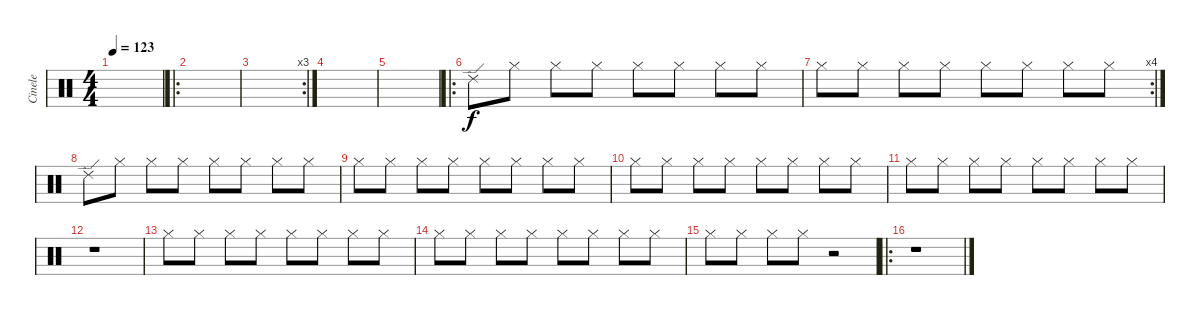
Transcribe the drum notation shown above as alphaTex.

\track ("Cinele" "Cinele") {instrument percussion}
\staff {score}
\articulation defaults
\ts (4 4)
\tempo 123
\clef neutral
\ks c
|
\ro
|
\rc 3
|
|
|
\ro "Ride (edge) 2".8 "Hi-Hat (closed)".8 "Hi-Hat (closed)".8 "Hi-Hat (closed)".8 "Hi-Hat (closed)".8 "Hi-Hat (closed)".8 "Hi-Hat (closed)".8 "Hi-Hat (closed)".8
|
\rc 4 "Hi-Hat (closed)".8 "Hi-Hat (closed)".8 "Hi-Hat (closed)".8 "Hi-Hat (closed)".8 "Hi-Hat (closed)".8 "Hi-Hat (closed)".8 "Hi-Hat (closed)".8 "Hi-Hat (closed)".8
|
"Ride (edge) 2".8 "Hi-Hat (closed)".8 "Hi-Hat (closed)".8 "Hi-Hat (closed)".8 "Hi-Hat (closed)".8 "Hi-Hat (closed)".8 "Hi-Hat (closed)".8 "Hi-Hat (closed)".8 |
"Hi-Hat (closed)".8 "Hi-Hat (closed)".8 "Hi-Hat (closed)".8 "Hi-Hat (closed)".8 "Hi-Hat (closed)".8 "Hi-Hat (closed)".8 "Hi-Hat (closed)".8 "Hi-Hat (closed)".8 |
"Hi-Hat (closed)".8 "Hi-Hat (closed)".8 "Hi-Hat (closed)".8 "Hi-Hat (closed)".8 "Hi-Hat (closed)".8 "Hi-Hat (closed)".8 "Hi-Hat (closed)".8 "Hi-Hat (closed)".8 |
"Hi-Hat (closed)".8 "Hi-Hat (closed)".8 "Hi-Hat (closed)".8 "Hi-Hat (closed)".8 "Hi-Hat (closed)".8 "Hi-Hat (closed)".8 "Hi-Hat (closed)".8 "Hi-Hat (closed)".8 |
r.1 |
"Hi-Hat (closed)".8 "Hi-Hat (closed)".8 "Hi-Hat (closed)".8 "Hi-Hat (closed)".8 "Hi-Hat (closed)".8 "Hi-Hat (closed)".8 "Hi-Hat (closed)".8 "Hi-Hat (closed)".8 |
"Hi-Hat (closed)".8 "Hi-Hat (closed)".8 "Hi-Hat (closed)".8 "Hi-Hat (closed)".8 "Hi-Hat (closed)".8 "Hi-Hat (closed)".8 "Hi-Hat (closed)".8 "Hi-Hat (closed)".8 |
"Hi-Hat (closed)".8 "Hi-Hat (closed)".8 "Hi-Hat (closed)".8 "Hi-Hat (closed)".8 r.2 |
\ro
r.1
